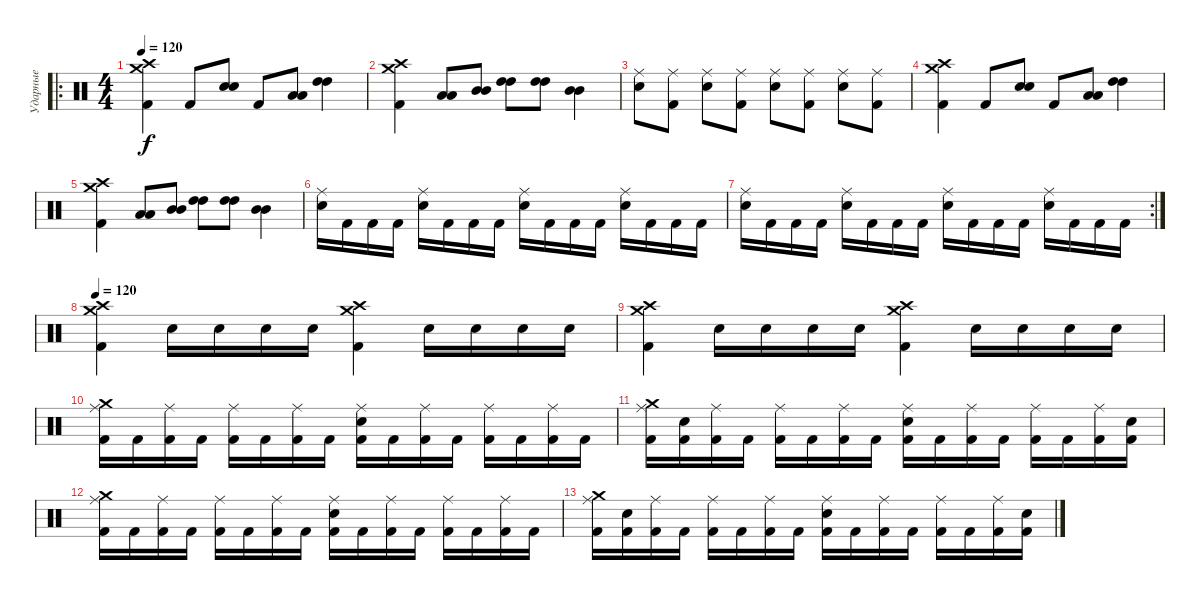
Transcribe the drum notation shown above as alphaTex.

\track ("Ударные" "Ударные") {instrument percussion}
\staff {score}
\articulation defaults
\ro
\ts (4 4)
\tempo 120
\clef neutral
\ks c
("Kick (hit) 2" "Crash high (hit)" "Crash medium (hit)").4{dy f} "Kick (hit) 2".8 ("Electric Snare (hit)" "Electric Snare (hit)").8 "Kick (hit) 2".8 ("Low Tom (hit)" "Low Tom (hit)").8 ("High Tom (hit)" "High Tom (hit)").4 |
("Kick (hit) 2" "Crash high (hit)" "Crash medium (hit)").4 ("Low Tom (hit)" "Low Tom (hit)").8 ("Mid Tom (hit)" "Mid Tom (hit)").8 ("High Tom (hit)" "High Tom (hit)").8 ("High Tom (hit)" "High Tom (hit)").8 ("Mid Tom (hit)" "Mid Tom (hit)").4 |
("Ride (middle)" "Electric Snare (hit)").8 ("Kick (hit) 2" "Ride (middle)").8 ("Ride (middle)" "Electric Snare (hit)").8 ("Kick (hit) 2" "Ride (middle)").8 ("Ride (middle)" "Electric Snare (hit)").8 ("Kick (hit) 2" "Ride (middle)").8 ("Ride (middle)" "Electric Snare (hit)").8 ("Kick (hit) 2" "Ride (middle)").8 |
("Kick (hit) 2" "Crash high (hit)" "Crash medium (hit)").4 "Kick (hit) 2".8 ("Electric Snare (hit)" "Electric Snare (hit)").8 "Kick (hit) 2".8 ("Low Tom (hit)" "Low Tom (hit)").8 ("High Tom (hit)" "High Tom (hit)").4 |
("Kick (hit) 2" "Crash high (hit)" "Crash medium (hit)").4 ("Low Tom (hit)" "Low Tom (hit)").8 ("Mid Tom (hit)" "Mid Tom (hit)").8 ("High Tom (hit)" "High Tom (hit)").8 ("High Tom (hit)" "High Tom (hit)").8 ("Mid Tom (hit)" "Mid Tom (hit)").4 |
("Electric Snare (hit)" "Ride (middle)").16 "Kick (hit) 2".16 "Kick (hit) 2".16 "Kick (hit) 2".16 ("Electric Snare (hit)" "Ride (middle)").16 "Kick (hit) 2".16 "Kick (hit) 2".16 "Kick (hit) 2".16 ("Electric Snare (hit)" "Ride (middle)").16 "Kick (hit) 2".16 "Kick (hit) 2".16 "Kick (hit) 2".16 ("Electric Snare (hit)" "Ride (middle)").16 "Kick (hit) 2".16 "Kick (hit) 2".16 "Kick (hit) 2".16 |
\rc 2
("Electric Snare (hit)" "Ride (middle)").16 "Kick (hit) 2".16 "Kick (hit) 2".16 "Kick (hit) 2".16 ("Electric Snare (hit)" "Ride (middle)").16 "Kick (hit) 2".16 "Kick (hit) 2".16 "Kick (hit) 2".16 ("Electric Snare (hit)" "Ride (middle)").16 "Kick (hit) 2".16 "Kick (hit) 2".16 "Kick (hit) 2".16 ("Electric Snare (hit)" "Ride (middle)").16 "Kick (hit) 2".16 "Kick (hit) 2".16 "Kick (hit) 2".16 |
\tempo 120
("Kick (hit) 2" "Crash high (hit)" "Crash medium (hit)").4 "Electric Snare (hit)".16 "Electric Snare (hit)".16 "Electric Snare (hit)".16 "Electric Snare (hit)".16 ("Kick (hit) 2" "Crash high (hit)" "Crash medium (hit)").4 "Electric Snare (hit)".16 "Electric Snare (hit)".16 "Electric Snare (hit)".16 "Electric Snare (hit)".16 |
("Kick (hit) 2" "Crash high (hit)" "Crash medium (hit)").4 "Electric Snare (hit)".16 "Electric Snare (hit)".16 "Electric Snare (hit)".16 "Electric Snare (hit)".16 ("Kick (hit) 2" "Crash high (hit)" "Crash medium (hit)").4 "Electric Snare (hit)".16 "Electric Snare (hit)".16 "Electric Snare (hit)".16 "Electric Snare (hit)".16 |
("Kick (hit) 2" "Crash medium (hit)" "Ride (middle)").16 "Kick (hit) 2".16 ("Kick (hit) 2" "Ride (middle)").16 "Kick (hit) 2".16 ("Kick (hit) 2" "Ride (middle)").16 "Kick (hit) 2".16 ("Kick (hit) 2" "Ride (middle)").16 "Kick (hit) 2".16 ("Kick (hit) 2" "Ride (middle)" "Electric Snare (hit)").16 "Kick (hit) 2".16 ("Kick (hit) 2" "Ride (middle)").16 "Kick (hit) 2".16 ("Kick (hit) 2" "Ride (middle)").16 "Kick (hit) 2".16 ("Kick (hit) 2" "Ride (middle)").16 "Kick (hit) 2".16 |
("Kick (hit) 2" "Ride (middle)" "Crash medium (hit)").16 ("Kick (hit) 2" "Electric Snare (hit)").16 ("Kick (hit) 2" "Ride (middle)").16 "Kick (hit) 2".16 ("Kick (hit) 2" "Ride (middle)").16 "Kick (hit) 2".16 ("Kick (hit) 2" "Ride (middle)").16 "Kick (hit) 2".16 ("Kick (hit) 2" "Ride (middle)" "Electric Snare (hit)").16 "Kick (hit) 2".16 ("Kick (hit) 2" "Ride (middle)").16 "Kick (hit) 2".16 ("Kick (hit) 2" "Ride (middle)").16 "Kick (hit) 2".16 ("Kick (hit) 2" "Ride (middle)").16 ("Kick (hit) 2" "Electric Snare (hit)").16 |
("Kick (hit) 2" "Crash medium (hit)" "Ride (middle)").16 "Kick (hit) 2".16 ("Kick (hit) 2" "Ride (middle)").16 "Kick (hit) 2".16 ("Kick (hit) 2" "Ride (middle)").16 "Kick (hit) 2".16 ("Kick (hit) 2" "Ride (middle)").16 "Kick (hit) 2".16 ("Kick (hit) 2" "Ride (middle)" "Electric Snare (hit)").16 "Kick (hit) 2".16 ("Kick (hit) 2" "Ride (middle)").16 "Kick (hit) 2".16 ("Kick (hit) 2" "Ride (middle)").16 "Kick (hit) 2".16 ("Kick (hit) 2" "Ride (middle)").16 "Kick (hit) 2".16 |
("Kick (hit) 2" "Ride (middle)" "Crash medium (hit)").16 ("Kick (hit) 2" "Electric Snare (hit)").16 ("Kick (hit) 2" "Ride (middle)").16 "Kick (hit) 2".16 ("Kick (hit) 2" "Ride (middle)").16 "Kick (hit) 2".16 ("Kick (hit) 2" "Ride (middle)").16 "Kick (hit) 2".16 ("Kick (hit) 2" "Ride (middle)" "Electric Snare (hit)").16 "Kick (hit) 2".16 ("Kick (hit) 2" "Ride (middle)").16 "Kick (hit) 2".16 ("Kick (hit) 2" "Ride (middle)").16 "Kick (hit) 2".16 ("Kick (hit) 2" "Ride (middle)").16 ("Kick (hit) 2" "Electric Snare (hit)").16
